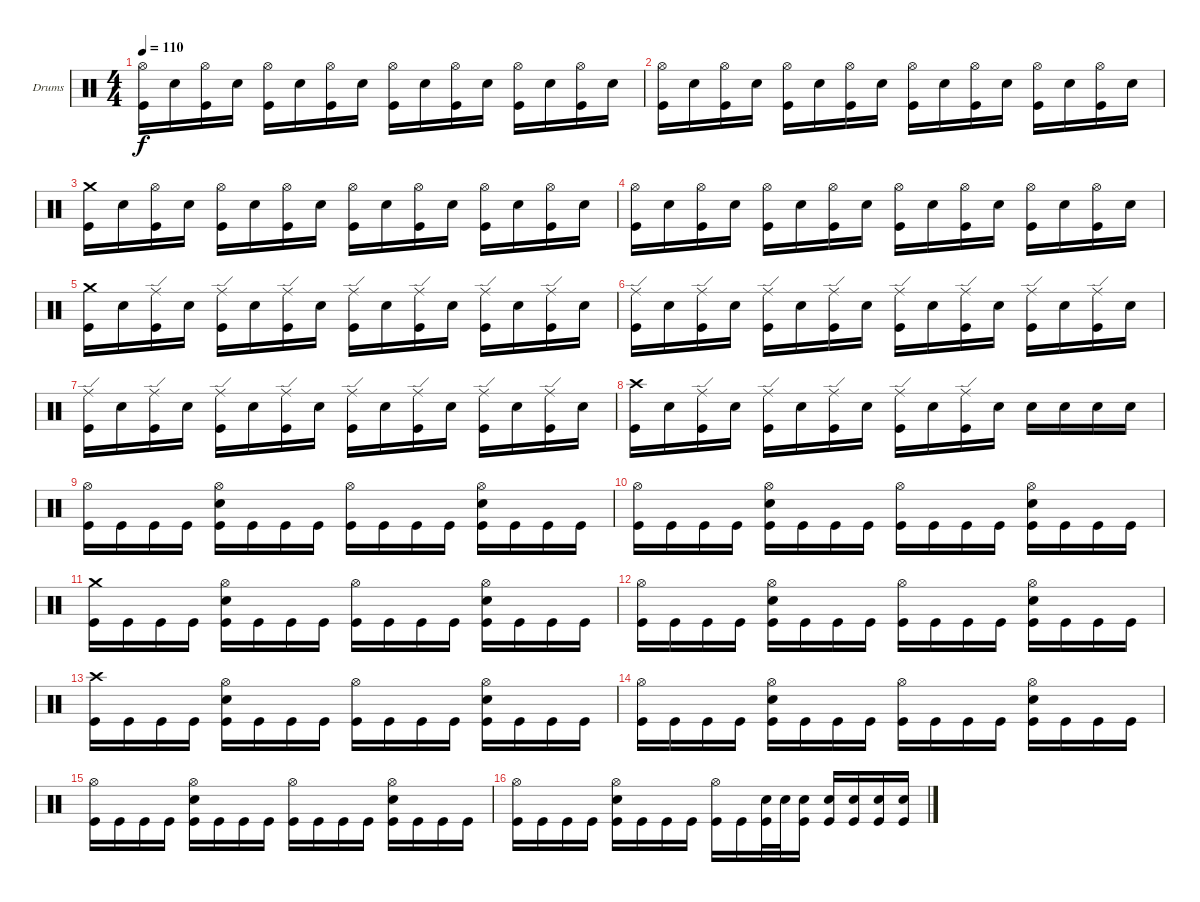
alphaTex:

\defaultSystemsLayout 4
\bracketExtendMode groupsimilarinstruments
\firstSystemTrackNameOrientation horizontal
\otherSystemsTrackNameOrientation horizontal
\track ("Drumkit" "Drums") {instrument percussion}
\staff {score}
\articulation defaults
\ts (4 4)
\tempo 110
\clef neutral
\ks c
("Hi-Hat (open)" "Kick (hit)").16{dy f} "Snare (hit) 2".16 ("Hi-Hat (open)" "Kick (hit)").16 "Snare (hit) 2".16 ("Hi-Hat (open)" "Kick (hit)").16 "Snare (hit) 2".16 ("Hi-Hat (open)" "Kick (hit)").16 "Snare (hit) 2".16 ("Hi-Hat (open)" "Kick (hit)").16 "Snare (hit) 2".16 ("Hi-Hat (open)" "Kick (hit)").16 "Snare (hit) 2".16 ("Hi-Hat (open)" "Kick (hit)").16 "Snare (hit) 2".16 ("Hi-Hat (open)" "Kick (hit)").16 "Snare (hit) 2".16 |
("Hi-Hat (open)" "Kick (hit)").16 "Snare (hit) 2".16 ("Hi-Hat (open)" "Kick (hit)").16 "Snare (hit) 2".16 ("Hi-Hat (open)" "Kick (hit)").16 "Snare (hit) 2".16 ("Hi-Hat (open)" "Kick (hit)").16 "Snare (hit) 2".16 ("Hi-Hat (open)" "Kick (hit)").16 "Snare (hit) 2".16 ("Hi-Hat (open)" "Kick (hit)").16 "Snare (hit) 2".16 ("Hi-Hat (open)" "Kick (hit)").16 "Snare (hit) 2".16 ("Hi-Hat (open)" "Kick (hit)").16 "Snare (hit) 2".16 |
("Crash medium (hit)" "Kick (hit)").16 "Snare (hit) 2".16 ("Hi-Hat (open)" "Kick (hit)").16 "Snare (hit) 2".16 ("Hi-Hat (open)" "Kick (hit)").16 "Snare (hit) 2".16 ("Hi-Hat (open)" "Kick (hit)").16 "Snare (hit) 2".16 ("Hi-Hat (open)" "Kick (hit)").16 "Snare (hit) 2".16 ("Hi-Hat (open)" "Kick (hit)").16 "Snare (hit) 2".16 ("Hi-Hat (open)" "Kick (hit)").16 "Snare (hit) 2".16 ("Hi-Hat (open)" "Kick (hit)").16 "Snare (hit) 2".16 |
("Hi-Hat (open)" "Kick (hit)").16 "Snare (hit) 2".16 ("Hi-Hat (open)" "Kick (hit)").16 "Snare (hit) 2".16 ("Hi-Hat (open)" "Kick (hit)").16 "Snare (hit) 2".16 ("Hi-Hat (open)" "Kick (hit)").16 "Snare (hit) 2".16 ("Hi-Hat (open)" "Kick (hit)").16 "Snare (hit) 2".16 ("Hi-Hat (open)" "Kick (hit)").16 "Snare (hit) 2".16 ("Hi-Hat (open)" "Kick (hit)").16 "Snare (hit) 2".16 ("Hi-Hat (open)" "Kick (hit)").16 "Snare (hit) 2".16 |
("Crash medium (hit)" "Kick (hit)").16 "Snare (hit) 2".16 ("Ride (edge)" "Kick (hit)").16 "Snare (hit) 2".16 ("Ride (edge)" "Kick (hit)").16 "Snare (hit) 2".16 ("Ride (edge)" "Kick (hit)").16 "Snare (hit) 2".16 ("Ride (edge)" "Kick (hit)").16 "Snare (hit) 2".16 ("Ride (edge)" "Kick (hit)").16 "Snare (hit) 2".16 ("Ride (edge)" "Kick (hit)").16 "Snare (hit) 2".16 ("Ride (edge)" "Kick (hit)").16 "Snare (hit) 2".16 |
("Ride (edge)" "Kick (hit)").16 "Snare (hit) 2".16 ("Ride (edge)" "Kick (hit)").16 "Snare (hit) 2".16 ("Ride (edge)" "Kick (hit)").16 "Snare (hit) 2".16 ("Ride (edge)" "Kick (hit)").16 "Snare (hit) 2".16 ("Ride (edge)" "Kick (hit)").16 "Snare (hit) 2".16 ("Ride (edge)" "Kick (hit)").16 "Snare (hit) 2".16 ("Ride (edge)" "Kick (hit)").16 "Snare (hit) 2".16 ("Ride (edge)" "Kick (hit)").16 "Snare (hit) 2".16 |
("Ride (edge)" "Kick (hit)").16 "Snare (hit) 2".16 ("Ride (edge)" "Kick (hit)").16 "Snare (hit) 2".16 ("Ride (edge)" "Kick (hit)").16 "Snare (hit) 2".16 ("Ride (edge)" "Kick (hit)").16 "Snare (hit) 2".16 ("Ride (edge)" "Kick (hit)").16 "Snare (hit) 2".16 ("Ride (edge)" "Kick (hit)").16 "Snare (hit) 2".16 ("Ride (edge)" "Kick (hit)").16 "Snare (hit) 2".16 ("Ride (edge)" "Kick (hit)").16 "Snare (hit) 2".16 |
("Crash high (hit)" "Kick (hit)").16 "Snare (hit) 2".16 ("Ride (edge)" "Kick (hit)").16 "Snare (hit) 2".16 ("Ride (edge)" "Kick (hit)").16 "Snare (hit) 2".16 ("Ride (edge)" "Kick (hit)").16 "Snare (hit) 2".16 ("Ride (edge)" "Kick (hit)").16 "Snare (hit) 2".16 ("Ride (edge)" "Kick (hit)").16 "Snare (hit) 2".16 "Snare (hit) 2".16 "Snare (hit) 2".16 "Snare (hit) 2".16 "Snare (hit) 2".16 |
("Hi-Hat (open)" "Kick (hit)").16 "Kick (hit)".16 "Kick (hit)".16 "Kick (hit)".16 ("Hi-Hat (open)" "Snare (hit) 2" "Kick (hit)").16 "Kick (hit)".16 "Kick (hit)".16 "Kick (hit)".16 ("Hi-Hat (open)" "Kick (hit)").16 "Kick (hit)".16 "Kick (hit)".16 "Kick (hit)".16 ("Hi-Hat (open)" "Snare (hit) 2" "Kick (hit)").16 "Kick (hit)".16 "Kick (hit)".16 "Kick (hit)".16 |
("Hi-Hat (open)" "Kick (hit)").16 "Kick (hit)".16 "Kick (hit)".16 "Kick (hit)".16 ("Hi-Hat (open)" "Snare (hit) 2" "Kick (hit)").16 "Kick (hit)".16 "Kick (hit)".16 "Kick (hit)".16 ("Hi-Hat (open)" "Kick (hit)").16 "Kick (hit)".16 "Kick (hit)".16 "Kick (hit)".16 ("Hi-Hat (open)" "Snare (hit) 2" "Kick (hit)").16 "Kick (hit)".16 "Kick (hit)".16 "Kick (hit)".16 |
("Crash medium (hit)" "Kick (hit)").16 "Kick (hit)".16 "Kick (hit)".16 "Kick (hit)".16 ("Hi-Hat (open)" "Snare (hit) 2" "Kick (hit)").16 "Kick (hit)".16 "Kick (hit)".16 "Kick (hit)".16 ("Hi-Hat (open)" "Kick (hit)").16 "Kick (hit)".16 "Kick (hit)".16 "Kick (hit)".16 ("Hi-Hat (open)" "Snare (hit) 2" "Kick (hit)").16 "Kick (hit)".16 "Kick (hit)".16 "Kick (hit)".16 |
("Hi-Hat (open)" "Kick (hit)").16 "Kick (hit)".16 "Kick (hit)".16 "Kick (hit)".16 ("Hi-Hat (open)" "Snare (hit) 2" "Kick (hit)").16 "Kick (hit)".16 "Kick (hit)".16 "Kick (hit)".16 ("Hi-Hat (open)" "Kick (hit)").16 "Kick (hit)".16 "Kick (hit)".16 "Kick (hit)".16 ("Hi-Hat (open)" "Snare (hit) 2" "Kick (hit)").16 "Kick (hit)".16 "Kick (hit)".16 "Kick (hit)".16 |
("Crash high (hit)" "Kick (hit)").16 "Kick (hit)".16 "Kick (hit)".16 "Kick (hit)".16 ("Hi-Hat (open)" "Snare (hit) 2" "Kick (hit)").16 "Kick (hit)".16 "Kick (hit)".16 "Kick (hit)".16 ("Hi-Hat (open)" "Kick (hit)").16 "Kick (hit)".16 "Kick (hit)".16 "Kick (hit)".16 ("Hi-Hat (open)" "Snare (hit) 2" "Kick (hit)").16 "Kick (hit)".16 "Kick (hit)".16 "Kick (hit)".16 |
("Hi-Hat (open)" "Kick (hit)").16 "Kick (hit)".16 "Kick (hit)".16 "Kick (hit)".16 ("Hi-Hat (open)" "Snare (hit) 2" "Kick (hit)").16 "Kick (hit)".16 "Kick (hit)".16 "Kick (hit)".16 ("Hi-Hat (open)" "Kick (hit)").16 "Kick (hit)".16 "Kick (hit)".16 "Kick (hit)".16 ("Hi-Hat (open)" "Snare (hit) 2" "Kick (hit)").16 "Kick (hit)".16 "Kick (hit)".16 "Kick (hit)".16 |
("Hi-Hat (open)" "Kick (hit)").16 "Kick (hit)".16 "Kick (hit)".16 "Kick (hit)".16 ("Hi-Hat (open)" "Snare (hit) 2" "Kick (hit)").16 "Kick (hit)".16 "Kick (hit)".16 "Kick (hit)".16 ("Hi-Hat (open)" "Kick (hit)").16 "Kick (hit)".16 "Kick (hit)".16 "Kick (hit)".16 ("Hi-Hat (open)" "Snare (hit) 2" "Kick (hit)").16 "Kick (hit)".16 "Kick (hit)".16 "Kick (hit)".16 |
("Hi-Hat (open)" "Kick (hit)").16 "Kick (hit)".16 "Kick (hit)".16 "Kick (hit)".16 ("Hi-Hat (open)" "Snare (hit) 2" "Kick (hit)").16 "Kick (hit)".16 "Kick (hit)".16 "Kick (hit)".16 ("Hi-Hat (open)" "Kick (hit)").16 "Kick (hit)".16 ("Snare (hit) 2" "Kick (hit)").32 "Snare (hit) 2".32 ("Snare (hit) 2" "Kick (hit)").16 ("Snare (hit) 2" "Kick (hit)").16 ("Snare (hit) 2" "Kick (hit)").16 ("Snare (hit) 2" "Kick (hit)").16 ("Snare (hit) 2" "Kick (hit)").16
